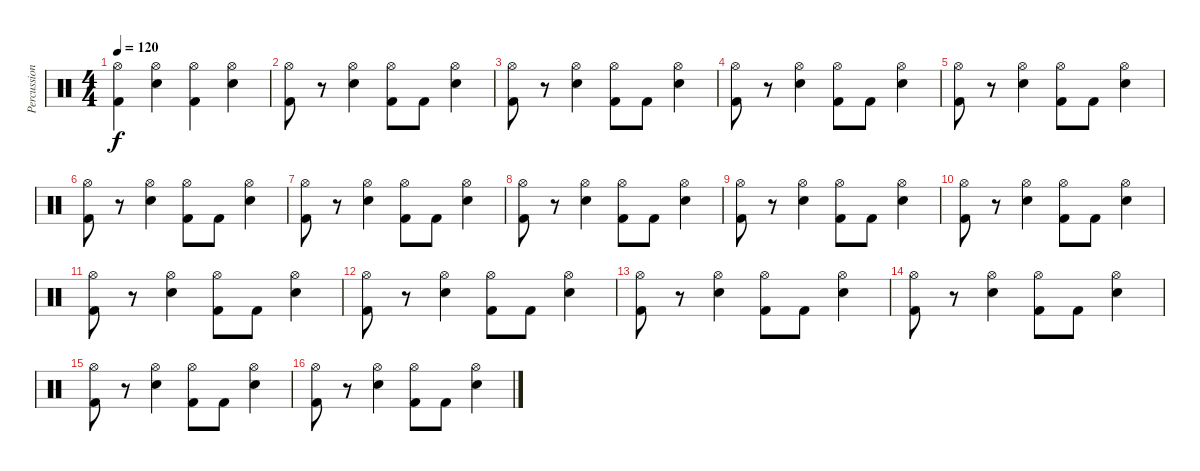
\track ("Percussion" "Percussion") {instrument percussion}
\staff {score}
\articulation defaults
\ts (4 4)
\tempo 120
\clef neutral
\ks c
("Hi-Hat (open)" "Kick (hit) 2").4{dy f} ("Snare (hit) 2" "Hi-Hat (open)").4 ("Hi-Hat (open)" "Kick (hit) 2").4 ("Snare (hit) 2" "Hi-Hat (open)").4 |
("Hi-Hat (open)" "Kick (hit) 2").8 r.8 ("Hi-Hat (open)" "Snare (hit) 2").4 ("Hi-Hat (open)" "Kick (hit) 2").8 "Kick (hit) 2".8 ("Hi-Hat (open)" "Snare (hit) 2").4 |
("Hi-Hat (open)" "Kick (hit) 2").8 r.8 ("Hi-Hat (open)" "Snare (hit) 2").4 ("Hi-Hat (open)" "Kick (hit) 2").8 "Kick (hit) 2".8 ("Hi-Hat (open)" "Snare (hit) 2").4 |
("Hi-Hat (open)" "Kick (hit) 2").8 r.8 ("Hi-Hat (open)" "Snare (hit) 2").4 ("Hi-Hat (open)" "Kick (hit) 2").8 "Kick (hit) 2".8 ("Hi-Hat (open)" "Snare (hit) 2").4 |
("Hi-Hat (open)" "Kick (hit) 2").8 r.8 ("Hi-Hat (open)" "Snare (hit) 2").4 ("Hi-Hat (open)" "Kick (hit) 2").8 "Kick (hit) 2".8 ("Hi-Hat (open)" "Snare (hit) 2").4 |
("Hi-Hat (open)" "Kick (hit) 2").8 r.8 ("Hi-Hat (open)" "Snare (hit) 2").4 ("Hi-Hat (open)" "Kick (hit) 2").8 "Kick (hit) 2".8 ("Hi-Hat (open)" "Snare (hit) 2").4 |
("Hi-Hat (open)" "Kick (hit) 2").8 r.8 ("Hi-Hat (open)" "Snare (hit) 2").4 ("Hi-Hat (open)" "Kick (hit) 2").8 "Kick (hit) 2".8 ("Hi-Hat (open)" "Snare (hit) 2").4 |
("Hi-Hat (open)" "Kick (hit) 2").8 r.8 ("Hi-Hat (open)" "Snare (hit) 2").4 ("Hi-Hat (open)" "Kick (hit) 2").8 "Kick (hit) 2".8 ("Hi-Hat (open)" "Snare (hit) 2").4 |
("Hi-Hat (open)" "Kick (hit) 2").8 r.8 ("Hi-Hat (open)" "Snare (hit) 2").4 ("Hi-Hat (open)" "Kick (hit) 2").8 "Kick (hit) 2".8 ("Hi-Hat (open)" "Snare (hit) 2").4 |
("Hi-Hat (open)" "Kick (hit) 2").8 r.8 ("Hi-Hat (open)" "Snare (hit) 2").4 ("Hi-Hat (open)" "Kick (hit) 2").8 "Kick (hit) 2".8 ("Hi-Hat (open)" "Snare (hit) 2").4 |
("Hi-Hat (open)" "Kick (hit) 2").8 r.8 ("Hi-Hat (open)" "Snare (hit) 2").4 ("Hi-Hat (open)" "Kick (hit) 2").8 "Kick (hit) 2".8 ("Hi-Hat (open)" "Snare (hit) 2").4 |
("Hi-Hat (open)" "Kick (hit) 2").8 r.8 ("Hi-Hat (open)" "Snare (hit) 2").4 ("Hi-Hat (open)" "Kick (hit) 2").8 "Kick (hit) 2".8 ("Hi-Hat (open)" "Snare (hit) 2").4 |
("Hi-Hat (open)" "Kick (hit) 2").8 r.8 ("Hi-Hat (open)" "Snare (hit) 2").4 ("Hi-Hat (open)" "Kick (hit) 2").8 "Kick (hit) 2".8 ("Hi-Hat (open)" "Snare (hit) 2").4 |
("Hi-Hat (open)" "Kick (hit) 2").8 r.8 ("Hi-Hat (open)" "Snare (hit) 2").4 ("Hi-Hat (open)" "Kick (hit) 2").8 "Kick (hit) 2".8 ("Hi-Hat (open)" "Snare (hit) 2").4 |
("Hi-Hat (open)" "Kick (hit) 2").8 r.8 ("Hi-Hat (open)" "Snare (hit) 2").4 ("Hi-Hat (open)" "Kick (hit) 2").8 "Kick (hit) 2".8 ("Hi-Hat (open)" "Snare (hit) 2").4 |
("Hi-Hat (open)" "Kick (hit) 2").8 r.8 ("Hi-Hat (open)" "Snare (hit) 2").4 ("Hi-Hat (open)" "Kick (hit) 2").8 "Kick (hit) 2".8 ("Hi-Hat (open)" "Snare (hit) 2").4
